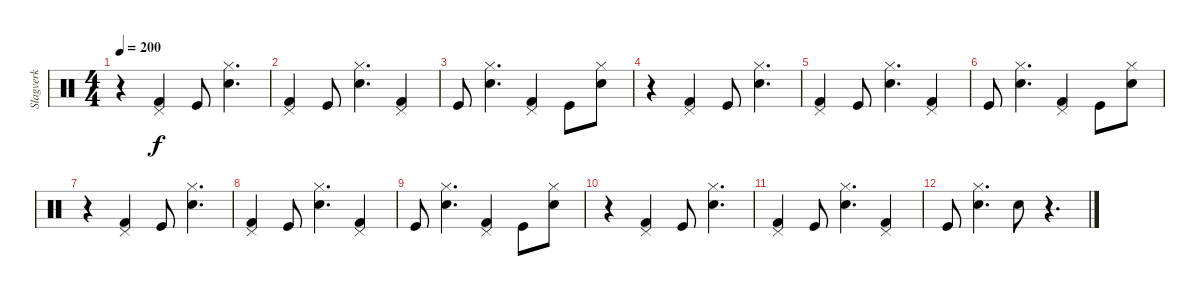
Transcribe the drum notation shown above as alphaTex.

\track ("Slagverk" "Slagverk") {instrument percussion}
\staff {score}
\articulation defaults
\ts (4 4)
\tempo 200
\clef neutral
\ks c
r.4{dy f} ("Pedal Hi-Hat (hit)" "Kick (hit) 2").4 "Kick (hit)".8 ("Hi-Hat (closed)" "Snare (hit) 2").4{d} |
("Pedal Hi-Hat (hit)" "Kick (hit) 2").4 "Kick (hit)".8 ("Hi-Hat (closed)" "Snare (hit) 2").4{d} ("Pedal Hi-Hat (hit)" "Kick (hit) 2").4 |
"Kick (hit)".8 ("Hi-Hat (closed)" "Snare (hit) 2").4{d} ("Pedal Hi-Hat (hit)" "Kick (hit) 2").4 "Kick (hit)".8 ("Hi-Hat (closed)" "Snare (hit) 2").8 |
r.4 ("Pedal Hi-Hat (hit)" "Kick (hit) 2").4 "Kick (hit)".8 ("Hi-Hat (closed)" "Snare (hit) 2").4{d} |
("Pedal Hi-Hat (hit)" "Kick (hit) 2").4 "Kick (hit)".8 ("Hi-Hat (closed)" "Snare (hit) 2").4{d} ("Pedal Hi-Hat (hit)" "Kick (hit) 2").4 |
"Kick (hit)".8 ("Hi-Hat (closed)" "Snare (hit) 2").4{d} ("Pedal Hi-Hat (hit)" "Kick (hit) 2").4 "Kick (hit)".8 ("Hi-Hat (closed)" "Snare (hit) 2").8 |
r.4 ("Pedal Hi-Hat (hit)" "Kick (hit) 2").4 "Kick (hit)".8 ("Hi-Hat (closed)" "Snare (hit) 2").4{d} |
("Pedal Hi-Hat (hit)" "Kick (hit) 2").4 "Kick (hit)".8 ("Hi-Hat (closed)" "Snare (hit) 2").4{d} ("Pedal Hi-Hat (hit)" "Kick (hit) 2").4 |
"Kick (hit)".8 ("Hi-Hat (closed)" "Snare (hit) 2").4{d} ("Pedal Hi-Hat (hit)" "Kick (hit) 2").4 "Kick (hit)".8 ("Hi-Hat (closed)" "Snare (hit) 2").8 |
r.4 ("Pedal Hi-Hat (hit)" "Kick (hit) 2").4 "Kick (hit)".8 ("Hi-Hat (closed)" "Snare (hit) 2").4{d} |
("Pedal Hi-Hat (hit)" "Kick (hit) 2").4 "Kick (hit)".8 ("Hi-Hat (closed)" "Snare (hit) 2").4{d} ("Pedal Hi-Hat (hit)" "Kick (hit) 2").4 |
"Kick (hit)".8 ("Hi-Hat (closed)" "Snare (hit) 2").4{d} "Snare (hit) 2".8 r.4{d}
